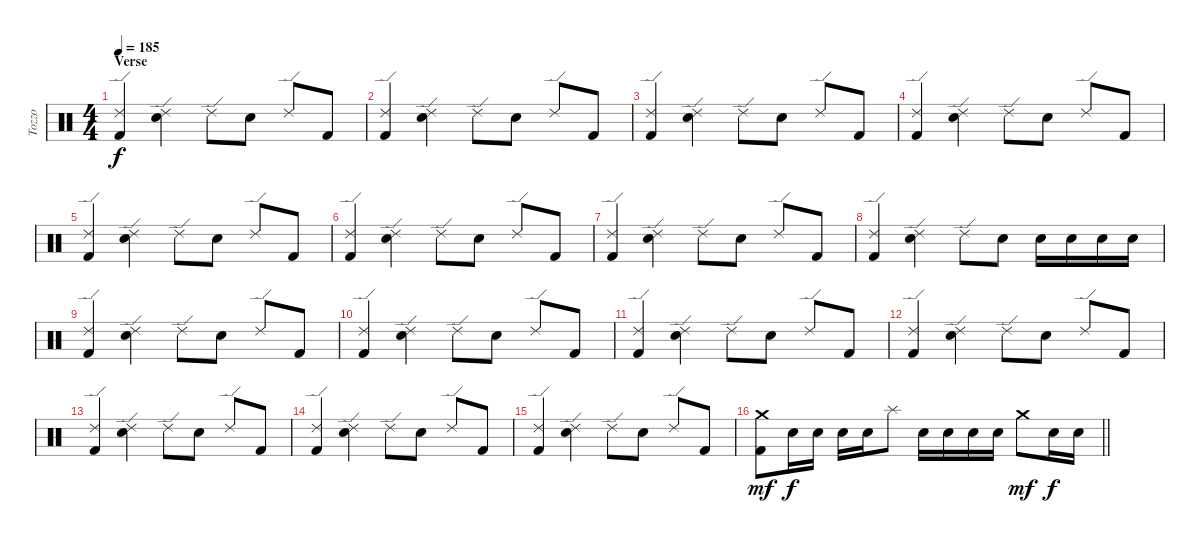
\track ("Tozzo" "Tozzo") {instrument percussion}
\staff {score}
\articulation defaults
\ts (4 4)
\section ("" "Verse")
\tempo 185
\clef neutral
\ks c
("Ride (edge) 2" "Kick (hit) 2").4{dy f} ("Ride (edge) 2" "Electric Snare (hit)").4 "Ride (edge) 2".8 "Electric Snare (hit)".8 "Ride (edge) 2".8 "Kick (hit) 2".8 |
("Ride (edge) 2" "Kick (hit) 2").4 ("Ride (edge) 2" "Electric Snare (hit)").4 "Ride (edge) 2".8 "Electric Snare (hit)".8 "Ride (edge) 2".8 "Kick (hit) 2".8 |
("Ride (edge) 2" "Kick (hit) 2").4 ("Ride (edge) 2" "Electric Snare (hit)").4 "Ride (edge) 2".8 "Electric Snare (hit)".8 "Ride (edge) 2".8 "Kick (hit) 2".8 |
("Ride (edge) 2" "Kick (hit) 2").4 ("Ride (edge) 2" "Electric Snare (hit)").4 "Ride (edge) 2".8 "Electric Snare (hit)".8 "Ride (edge) 2".8 "Kick (hit) 2".8 |
("Ride (edge) 2" "Kick (hit) 2").4 ("Ride (edge) 2" "Electric Snare (hit)").4 "Ride (edge) 2".8 "Electric Snare (hit)".8 "Ride (edge) 2".8 "Kick (hit) 2".8 |
("Ride (edge) 2" "Kick (hit) 2").4 ("Ride (edge) 2" "Electric Snare (hit)").4 "Ride (edge) 2".8 "Electric Snare (hit)".8 "Ride (edge) 2".8 "Kick (hit) 2".8 |
("Ride (edge) 2" "Kick (hit) 2").4 ("Ride (edge) 2" "Electric Snare (hit)").4 "Ride (edge) 2".8 "Electric Snare (hit)".8 "Ride (edge) 2".8 "Kick (hit) 2".8 |
("Ride (edge) 2" "Kick (hit) 2").4 ("Ride (edge) 2" "Electric Snare (hit)").4 "Ride (edge) 2".8 "Electric Snare (hit)".8 "Electric Snare (hit)".16 "Electric Snare (hit)".16 "Electric Snare (hit)".16 "Electric Snare (hit)".16 |
("Ride (edge) 2" "Kick (hit) 2").4 ("Ride (edge) 2" "Electric Snare (hit)").4 "Ride (edge) 2".8 "Electric Snare (hit)".8 "Ride (edge) 2".8 "Kick (hit) 2".8 |
("Ride (edge) 2" "Kick (hit) 2").4 ("Ride (edge) 2" "Electric Snare (hit)").4 "Ride (edge) 2".8 "Electric Snare (hit)".8 "Ride (edge) 2".8 "Kick (hit) 2".8 |
("Ride (edge) 2" "Kick (hit) 2").4 ("Ride (edge) 2" "Electric Snare (hit)").4 "Ride (edge) 2".8 "Electric Snare (hit)".8 "Ride (edge) 2".8 "Kick (hit) 2".8 |
("Ride (edge) 2" "Kick (hit) 2").4 ("Ride (edge) 2" "Electric Snare (hit)").4 "Ride (edge) 2".8 "Electric Snare (hit)".8 "Ride (edge) 2".8 "Kick (hit) 2".8 |
("Ride (edge) 2" "Kick (hit) 2").4 ("Ride (edge) 2" "Electric Snare (hit)").4 "Ride (edge) 2".8 "Electric Snare (hit)".8 "Ride (edge) 2".8 "Kick (hit) 2".8 |
("Ride (edge) 2" "Kick (hit) 2").4 ("Ride (edge) 2" "Electric Snare (hit)").4 "Ride (edge) 2".8 "Electric Snare (hit)".8 "Ride (edge) 2".8 "Kick (hit) 2".8 |
("Ride (edge) 2" "Kick (hit) 2").4 ("Ride (edge) 2" "Electric Snare (hit)").4 "Ride (edge) 2".8 "Electric Snare (hit)".8 "Ride (edge) 2".8 "Kick (hit) 2".8 |
\barLineRight lightlight
("Crash medium (hit)" "Kick (hit) 2").8{dy mf} "Electric Snare (hit)".16{dy f} "Electric Snare (hit)".16 "Electric Snare (hit)".16 "Electric Snare (hit)".16 "Splash (hit)".8 "Electric Snare (hit)".16 "Electric Snare (hit)".16 "Electric Snare (hit)".16 "Electric Snare (hit)".16 "Crash medium (hit)".8{dy mf} "Electric Snare (hit)".16{dy f} "Electric Snare (hit)".16
